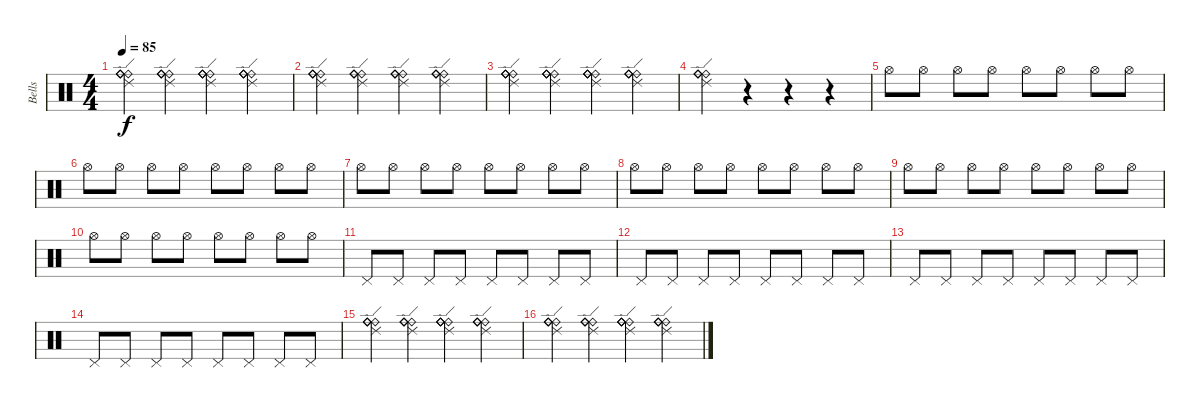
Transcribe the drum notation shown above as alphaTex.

\track ("Bells" "Bells") {instrument percussion}
\staff {score}
\articulation defaults
\ts (4 4)
\tempo 85
\clef neutral
\ks c
("Ride (bell)" "Ride (bell)" "Ride (bell)" "Ride (bell)" "Ride (edge) 2").4{dy f} ("Ride (bell)" "Ride (bell)" "Ride (bell)" "Ride (bell)" "Ride (edge) 2").4 ("Ride (bell)" "Ride (bell)" "Ride (bell)" "Ride (bell)" "Ride (edge) 2").4 ("Ride (bell)" "Ride (bell)" "Ride (bell)" "Ride (bell)" "Ride (edge) 2").4 |
("Ride (bell)" "Ride (bell)" "Ride (bell)" "Ride (bell)" "Ride (edge) 2").4 ("Ride (bell)" "Ride (bell)" "Ride (bell)" "Ride (bell)" "Ride (edge) 2").4 ("Ride (bell)" "Ride (bell)" "Ride (bell)" "Ride (bell)" "Ride (edge) 2").4 ("Ride (bell)" "Ride (bell)" "Ride (bell)" "Ride (bell)" "Ride (edge) 2").4 |
("Ride (bell)" "Ride (bell)" "Ride (bell)" "Ride (bell)" "Ride (edge) 2").4 ("Ride (bell)" "Ride (bell)" "Ride (bell)" "Ride (bell)" "Ride (edge) 2").4 ("Ride (bell)" "Ride (bell)" "Ride (bell)" "Ride (bell)" "Ride (edge) 2").4 ("Ride (bell)" "Ride (bell)" "Ride (bell)" "Ride (bell)" "Ride (edge) 2").4 |
("Ride (bell)" "Ride (bell)" "Ride (bell)" "Ride (bell)" "Ride (edge) 2").4 r.4 r.4 r.4 |
"Hi-Hat (open)".8{balance 12} "Hi-Hat (open)".8 "Hi-Hat (open)".8 "Hi-Hat (open)".8 "Hi-Hat (open)".8 "Hi-Hat (open)".8 "Hi-Hat (open)".8 "Hi-Hat (open)".8 |
"Hi-Hat (open)".8 "Hi-Hat (open)".8 "Hi-Hat (open)".8 "Hi-Hat (open)".8 "Hi-Hat (open)".8 "Hi-Hat (open)".8 "Hi-Hat (open)".8 "Hi-Hat (open)".8 |
"Hi-Hat (open)".8 "Hi-Hat (open)".8 "Hi-Hat (open)".8 "Hi-Hat (open)".8 "Hi-Hat (open)".8 "Hi-Hat (open)".8 "Hi-Hat (open)".8 "Hi-Hat (open)".8 |
"Hi-Hat (open)".8 "Hi-Hat (open)".8 "Hi-Hat (open)".8 "Hi-Hat (open)".8 "Hi-Hat (open)".8 "Hi-Hat (open)".8 "Hi-Hat (open)".8 "Hi-Hat (open)".8 |
"Hi-Hat (open)".8 "Hi-Hat (open)".8 "Hi-Hat (open)".8 "Hi-Hat (open)".8 "Hi-Hat (open)".8 "Hi-Hat (open)".8 "Hi-Hat (open)".8 "Hi-Hat (open)".8 |
"Hi-Hat (open)".8 "Hi-Hat (open)".8 "Hi-Hat (open)".8 "Hi-Hat (open)".8 "Hi-Hat (open)".8 "Hi-Hat (open)".8 "Hi-Hat (open)".8 "Hi-Hat (open)".8 |
"Pedal Hi-Hat (hit)".8 "Pedal Hi-Hat (hit)".8 "Pedal Hi-Hat (hit)".8 "Pedal Hi-Hat (hit)".8 "Pedal Hi-Hat (hit)".8 "Pedal Hi-Hat (hit)".8 "Pedal Hi-Hat (hit)".8 "Pedal Hi-Hat (hit)".8 |
"Pedal Hi-Hat (hit)".8 "Pedal Hi-Hat (hit)".8 "Pedal Hi-Hat (hit)".8 "Pedal Hi-Hat (hit)".8 "Pedal Hi-Hat (hit)".8 "Pedal Hi-Hat (hit)".8 "Pedal Hi-Hat (hit)".8 "Pedal Hi-Hat (hit)".8 |
"Pedal Hi-Hat (hit)".8 "Pedal Hi-Hat (hit)".8 "Pedal Hi-Hat (hit)".8 "Pedal Hi-Hat (hit)".8 "Pedal Hi-Hat (hit)".8 "Pedal Hi-Hat (hit)".8 "Pedal Hi-Hat (hit)".8 "Pedal Hi-Hat (hit)".8 |
"Pedal Hi-Hat (hit)".8 "Pedal Hi-Hat (hit)".8 "Pedal Hi-Hat (hit)".8 "Pedal Hi-Hat (hit)".8 "Pedal Hi-Hat (hit)".8 "Pedal Hi-Hat (hit)".8 "Pedal Hi-Hat (hit)".8 "Pedal Hi-Hat (hit)".8 |
("Ride (bell)" "Ride (bell)" "Ride (bell)" "Ride (bell)" "Ride (edge) 2").4{balance 4} ("Ride (bell)" "Ride (bell)" "Ride (bell)" "Ride (bell)" "Ride (edge) 2").4 ("Ride (bell)" "Ride (bell)" "Ride (bell)" "Ride (bell)" "Ride (edge) 2").4 ("Ride (bell)" "Ride (bell)" "Ride (bell)" "Ride (bell)" "Ride (edge) 2").4 |
("Ride (bell)" "Ride (bell)" "Ride (bell)" "Ride (bell)" "Ride (edge) 2").4 ("Ride (bell)" "Ride (bell)" "Ride (bell)" "Ride (bell)" "Ride (edge) 2").4 ("Ride (bell)" "Ride (bell)" "Ride (bell)" "Ride (bell)" "Ride (edge) 2").4 ("Ride (bell)" "Ride (bell)" "Ride (bell)" "Ride (bell)" "Ride (edge) 2").4
